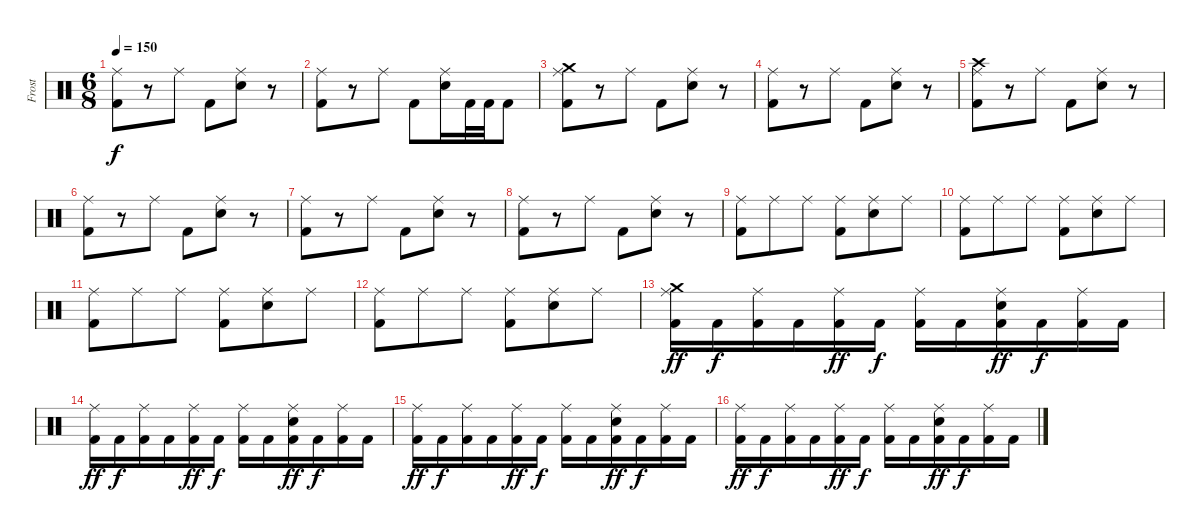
\track ("Frost" "Frost") {instrument percussion}
\staff {score}
\articulation defaults
\ts (6 8)
\tempo 150
\clef neutral
\ks c
("Kick (hit) 2" "Ride (middle)").8{dy f} r.8 "Ride (middle)".8 "Kick (hit) 2".8 ("Snare (hit) 2" "Ride (middle)").8 r.8 |
("Kick (hit) 2" "Ride (middle)").8 r.8 "Ride (middle)".8 "Kick (hit) 2".8 ("Snare (hit) 2" "Ride (middle)").16 "Kick (hit) 2".32 "Kick (hit) 2".32 "Kick (hit) 2".8 |
("Kick (hit) 2" "Crash medium (hit)" "Ride (middle)").8 r.8 "Ride (middle)".8 "Kick (hit) 2".8 ("Snare (hit) 2" "Ride (middle)").8 r.8 |
("Kick (hit) 2" "Ride (middle)").8 r.8 "Ride (middle)".8 "Kick (hit) 2".8 ("Snare (hit) 2" "Ride (middle)").8 r.8 |
("Kick (hit) 2" "Crash high (hit)" "Ride (middle)").8 r.8 "Ride (middle)".8 "Kick (hit) 2".8 ("Snare (hit) 2" "Ride (middle)").8 r.8 |
("Kick (hit) 2" "Ride (middle)").8 r.8 "Ride (middle)".8 "Kick (hit) 2".8 ("Snare (hit) 2" "Ride (middle)").8 r.8 |
("Kick (hit) 2" "Ride (middle)").8 r.8 "Ride (middle)".8 "Kick (hit) 2".8 ("Snare (hit) 2" "Ride (middle)").8 r.8 |
("Kick (hit) 2" "Ride (middle)").8 r.8 "Ride (middle)".8 "Kick (hit) 2".8 ("Snare (hit) 2" "Ride (middle)").8 r.8 |
("Kick (hit) 2" "Ride (middle)").8 "Ride (middle)".8 "Ride (middle)".8 ("Kick (hit) 2" "Ride (middle)").8 ("Snare (hit) 2" "Ride (middle)").8 "Ride (middle)".8 |
("Kick (hit) 2" "Ride (middle)").8 "Ride (middle)".8 "Ride (middle)".8 ("Kick (hit) 2" "Ride (middle)").8 ("Snare (hit) 2" "Ride (middle)").8 "Ride (middle)".8 |
("Kick (hit) 2" "Ride (middle)").8 "Ride (middle)".8 "Ride (middle)".8 ("Kick (hit) 2" "Ride (middle)").8 ("Snare (hit) 2" "Ride (middle)").8 "Ride (middle)".8 |
("Kick (hit) 2" "Ride (middle)").8 "Ride (middle)".8 "Ride (middle)".8 ("Kick (hit) 2" "Ride (middle)").8 ("Snare (hit) 2" "Ride (middle)").8 "Ride (middle)".8 |
("Kick (hit) 2" "Crash medium (hit)" "Ride (middle)").16{dy ff} "Kick (hit) 2".16{dy f} ("Kick (hit) 2" "Ride (middle)").16 "Kick (hit) 2".16 ("Kick (hit) 2" "Ride (middle)").16{dy ff} "Kick (hit) 2".16{dy f} ("Kick (hit) 2" "Ride (middle)").16 "Kick (hit) 2".16 ("Kick (hit) 2" "Snare (hit) 2" "Ride (middle)").16{dy ff} "Kick (hit) 2".16{dy f} ("Kick (hit) 2" "Ride (middle)").16 "Kick (hit) 2".16 |
("Kick (hit) 2" "Ride (middle)").16{dy ff} "Kick (hit) 2".16{dy f} ("Kick (hit) 2" "Ride (middle)").16 "Kick (hit) 2".16 ("Kick (hit) 2" "Ride (middle)").16{dy ff} "Kick (hit) 2".16{dy f} ("Kick (hit) 2" "Ride (middle)").16 "Kick (hit) 2".16 ("Kick (hit) 2" "Snare (hit) 2" "Ride (middle)").16{dy ff} "Kick (hit) 2".16{dy f} ("Kick (hit) 2" "Ride (middle)").16 "Kick (hit) 2".16 |
("Kick (hit) 2" "Ride (middle)").16{dy ff} "Kick (hit) 2".16{dy f} ("Kick (hit) 2" "Ride (middle)").16 "Kick (hit) 2".16 ("Kick (hit) 2" "Ride (middle)").16{dy ff} "Kick (hit) 2".16{dy f} ("Kick (hit) 2" "Ride (middle)").16 "Kick (hit) 2".16 ("Kick (hit) 2" "Snare (hit) 2" "Ride (middle)").16{dy ff} "Kick (hit) 2".16{dy f} ("Kick (hit) 2" "Ride (middle)").16 "Kick (hit) 2".16 |
("Kick (hit) 2" "Ride (middle)").16{dy ff} "Kick (hit) 2".16{dy f} ("Kick (hit) 2" "Ride (middle)").16 "Kick (hit) 2".16 ("Kick (hit) 2" "Ride (middle)").16{dy ff} "Kick (hit) 2".16{dy f} ("Kick (hit) 2" "Ride (middle)").16 "Kick (hit) 2".16 ("Kick (hit) 2" "Snare (hit) 2" "Ride (middle)").16{dy ff} "Kick (hit) 2".16{dy f} ("Kick (hit) 2" "Ride (middle)").16 "Kick (hit) 2".16
